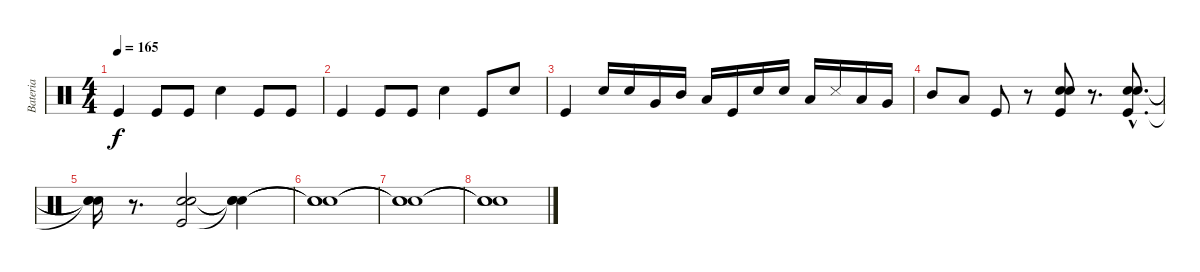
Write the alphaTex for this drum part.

\track ("Bateria" "Bateria") {instrument percussion}
\staff {score}
\articulation defaults
\ts (4 4)
\tempo 165
\clef neutral
\ks c "Kick (hit)".4{dy f} "Kick (hit)".8 "Kick (hit)".8 "Electric Snare (hit)".4 "Kick (hit)".8 "Kick (hit)".8
|
"Kick (hit)".4 "Kick (hit)".8 "Kick (hit)".8 "Electric Snare (hit)".4 "Kick (hit)".8 "Snare (hit) 2".8 |
"Kick (hit)".4 "Snare (hit) 2".16 "Snare (hit) 2".16 "Very Low Tom (hit)".16 "Mid Tom (hit)".16 "Low Tom (hit)".16 "Kick (hit)".16 "Snare (hit) 2".16 "Electric Snare (hit)".16 "Low Floor Tom (hit)".16 "Metronome (hit)".16 "Low Floor Tom (hit)".16 "Very Low Tom (hit)".16 |
"Mid Tom (hit)".8 "Low Tom (hit)".8 "Kick (hit)".8 r.8 ("Electric Snare (hit)" "Snare (hit) 2" "Kick (hit)").8 r.8{d} ("Electric Snare (hit)"{hac} "Snare (hit) 2"{hac} "Kick (hit)"{hac}).8{d} |
("Snare (hit)"{t} "Snare (hit)"{t} "Snare (hit)"{t}).16 r.8{d} ("Electric Snare (hit)" "Snare (hit) 2" "Kick (hit)").2 ("Snare (hit)"{t} "Snare (hit)"{t} "Snare (hit)"{t}).4 |
("Snare (hit)"{t} "Snare (hit)"{t} "Snare (hit)"{t}).1 |
("Snare (hit)"{t} "Snare (hit)"{t} "Snare (hit)"{t}).1 |
("Snare (hit)"{t} "Snare (hit)"{t} "Snare (hit)"{t}).1
